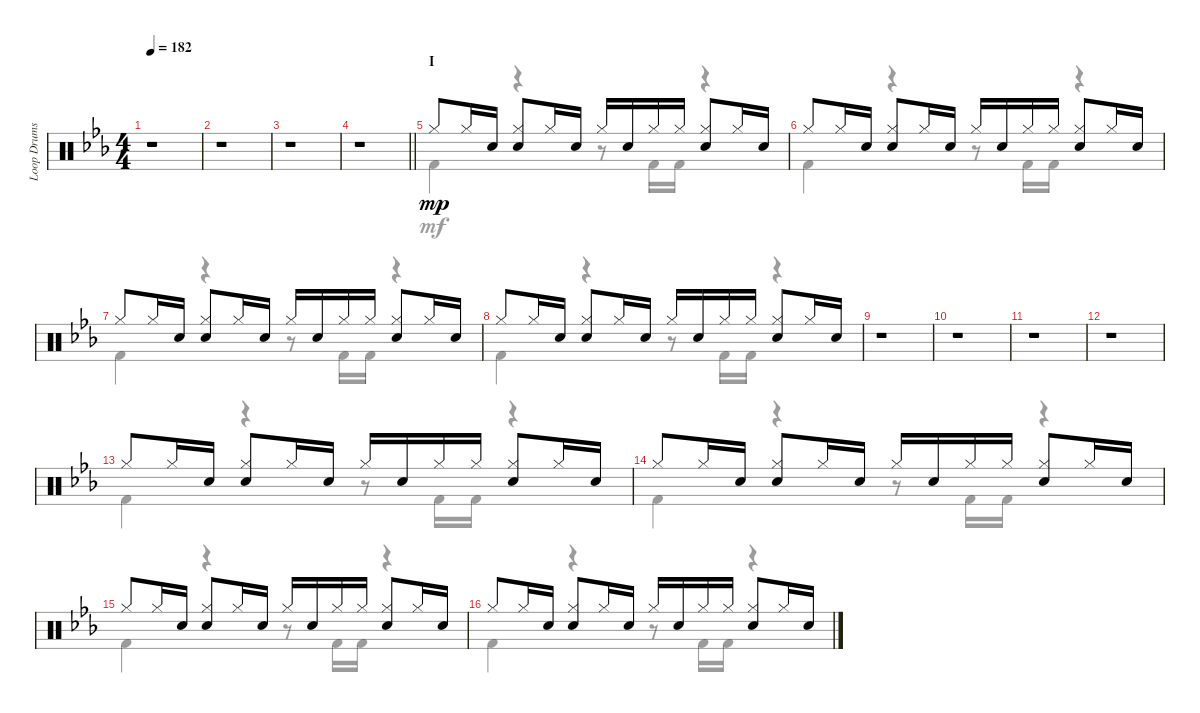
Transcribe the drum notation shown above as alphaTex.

\track ("Loop Drums" "Loop Drums") {instrument percussion}
\staff {score}
\articulation defaults
\voice
\ts (4 4)
\tempo 182
\clef neutral
\ks eb
r.1{dy mp} |
r.1 |
r.1 |
\barLineRight lightlight
r.1 |
\section ("" "I")
"Hi-Hat (closed)".8 "Hi-Hat (closed)".16 "Electric Snare (hit)".16 ("Hi-Hat (closed)" "Electric Snare (hit)").8 "Hi-Hat (closed)".16 "Electric Snare (hit)".16 "Hi-Hat (closed)".16 "Electric Snare (hit)".16 "Hi-Hat (closed)".16 "Hi-Hat (closed)".16 ("Hi-Hat (closed)" "Electric Snare (hit)").8 "Hi-Hat (closed)".16 "Electric Snare (hit)".16 |
"Hi-Hat (closed)".8 "Hi-Hat (closed)".16 "Electric Snare (hit)".16 ("Hi-Hat (closed)" "Electric Snare (hit)").8 "Hi-Hat (closed)".16 "Electric Snare (hit)".16 "Hi-Hat (closed)".16 "Electric Snare (hit)".16 "Hi-Hat (closed)".16 "Hi-Hat (closed)".16 ("Hi-Hat (closed)" "Electric Snare (hit)").8 "Hi-Hat (closed)".16 "Electric Snare (hit)".16 |
"Hi-Hat (closed)".8 "Hi-Hat (closed)".16 "Electric Snare (hit)".16 ("Hi-Hat (closed)" "Electric Snare (hit)").8 "Hi-Hat (closed)".16 "Electric Snare (hit)".16 "Hi-Hat (closed)".16 "Electric Snare (hit)".16 "Hi-Hat (closed)".16 "Hi-Hat (closed)".16 ("Hi-Hat (closed)" "Electric Snare (hit)").8 "Hi-Hat (closed)".16 "Electric Snare (hit)".16 |
"Hi-Hat (closed)".8 "Hi-Hat (closed)".16 "Electric Snare (hit)".16 ("Hi-Hat (closed)" "Electric Snare (hit)").8 "Hi-Hat (closed)".16 "Electric Snare (hit)".16 "Hi-Hat (closed)".16 "Electric Snare (hit)".16 "Hi-Hat (closed)".16 "Hi-Hat (closed)".16 ("Hi-Hat (closed)" "Electric Snare (hit)").8 "Hi-Hat (closed)".16 "Electric Snare (hit)".16 |
r.1 |
r.1 |
r.1 |
r.1 |
"Hi-Hat (closed)".8 "Hi-Hat (closed)".16 "Electric Snare (hit)".16 ("Hi-Hat (closed)" "Electric Snare (hit)").8 "Hi-Hat (closed)".16 "Electric Snare (hit)".16 "Hi-Hat (closed)".16 "Electric Snare (hit)".16 "Hi-Hat (closed)".16 "Hi-Hat (closed)".16 ("Hi-Hat (closed)" "Electric Snare (hit)").8 "Hi-Hat (closed)".16 "Electric Snare (hit)".16 |
"Hi-Hat (closed)".8 "Hi-Hat (closed)".16 "Electric Snare (hit)".16 ("Hi-Hat (closed)" "Electric Snare (hit)").8 "Hi-Hat (closed)".16 "Electric Snare (hit)".16 "Hi-Hat (closed)".16 "Electric Snare (hit)".16 "Hi-Hat (closed)".16 "Hi-Hat (closed)".16 ("Hi-Hat (closed)" "Electric Snare (hit)").8 "Hi-Hat (closed)".16 "Electric Snare (hit)".16 |
"Hi-Hat (closed)".8 "Hi-Hat (closed)".16 "Electric Snare (hit)".16 ("Hi-Hat (closed)" "Electric Snare (hit)").8 "Hi-Hat (closed)".16 "Electric Snare (hit)".16 "Hi-Hat (closed)".16 "Electric Snare (hit)".16 "Hi-Hat (closed)".16 "Hi-Hat (closed)".16 ("Hi-Hat (closed)" "Electric Snare (hit)").8 "Hi-Hat (closed)".16 "Electric Snare (hit)".16 |
"Hi-Hat (closed)".8 "Hi-Hat (closed)".16 "Electric Snare (hit)".16 ("Hi-Hat (closed)" "Electric Snare (hit)").8 "Hi-Hat (closed)".16 "Electric Snare (hit)".16 "Hi-Hat (closed)".16 "Electric Snare (hit)".16 "Hi-Hat (closed)".16 "Hi-Hat (closed)".16 ("Hi-Hat (closed)" "Electric Snare (hit)").8 "Hi-Hat (closed)".16 "Electric Snare (hit)".16
\voice
\clef neutral
\ottava regular
\simile none
\ks eb
r.1{dy mf} |
r.1 |
r.1 |
\barLineRight lightlight
r.1 |
"Kick (hit) 2".4 r.4 r.8 "Kick (hit) 2".16 "Kick (hit) 2".16 r.4 |
"Kick (hit) 2".4 r.4 r.8 "Kick (hit) 2".16 "Kick (hit) 2".16 r.4 |
"Kick (hit) 2".4 r.4 r.8 "Kick (hit) 2".16 "Kick (hit) 2".16 r.4 |
"Kick (hit) 2".4 r.4 r.8 "Kick (hit) 2".16 "Kick (hit) 2".16 r.4 |
r.1 |
r.1 |
r.1 |
r.1 |
"Kick (hit) 2".4 r.4 r.8 "Kick (hit) 2".16 "Kick (hit) 2".16 r.4 |
"Kick (hit) 2".4 r.4 r.8 "Kick (hit) 2".16 "Kick (hit) 2".16 r.4 |
"Kick (hit) 2".4 r.4 r.8 "Kick (hit) 2".16 "Kick (hit) 2".16 r.4 |
"Kick (hit) 2".4 r.4 r.8 "Kick (hit) 2".16 "Kick (hit) 2".16 r.4
